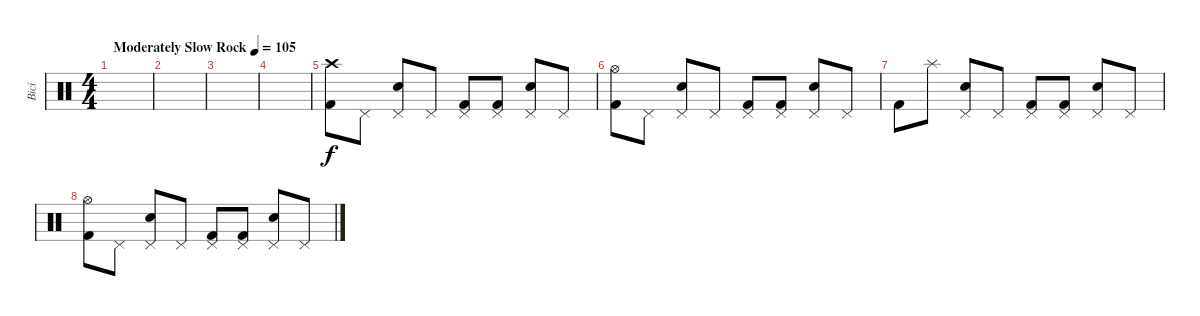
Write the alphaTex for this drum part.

\track ("Bicí" "Bicí") {instrument percussion}
\staff {score}
\articulation defaults
\ts (4 4)
\tempo (105 "Moderately Slow Rock")
\clef neutral
\ks c
|
|
|
|
("Kick (hit) 2" "Crash high (hit)").8 "Pedal Hi-Hat (hit)".8 ("Electric Snare (hit)" "Pedal Hi-Hat (hit)").8 "Pedal Hi-Hat (hit)".8 ("Kick (hit) 2" "Pedal Hi-Hat (hit)").8 ("Kick (hit) 2" "Pedal Hi-Hat (hit)").8 ("Electric Snare (hit)" "Pedal Hi-Hat (hit)").8 "Pedal Hi-Hat (hit)".8 |
("Kick (hit) 2" "Hi-Hat (open)").8 "Pedal Hi-Hat (hit)".8 ("Electric Snare (hit)" "Pedal Hi-Hat (hit)").8 "Pedal Hi-Hat (hit)".8 ("Kick (hit) 2" "Pedal Hi-Hat (hit)").8 ("Kick (hit) 2" "Pedal Hi-Hat (hit)").8 ("Electric Snare (hit)" "Pedal Hi-Hat (hit)").8 "Pedal Hi-Hat (hit)".8 |
"Kick (hit) 2".8 "Splash (hit)".8 ("Electric Snare (hit)" "Pedal Hi-Hat (hit)").8 "Pedal Hi-Hat (hit)".8 ("Kick (hit) 2" "Pedal Hi-Hat (hit)").8 ("Kick (hit) 2" "Pedal Hi-Hat (hit)").8 ("Electric Snare (hit)" "Pedal Hi-Hat (hit)").8 "Pedal Hi-Hat (hit)".8 |
("Kick (hit) 2" "Hi-Hat (open)").8 "Pedal Hi-Hat (hit)".8 ("Electric Snare (hit)" "Pedal Hi-Hat (hit)").8 "Pedal Hi-Hat (hit)".8 ("Kick (hit) 2" "Pedal Hi-Hat (hit)").8 ("Kick (hit) 2" "Pedal Hi-Hat (hit)").8 ("Electric Snare (hit)" "Pedal Hi-Hat (hit)").8 "Pedal Hi-Hat (hit)".8
